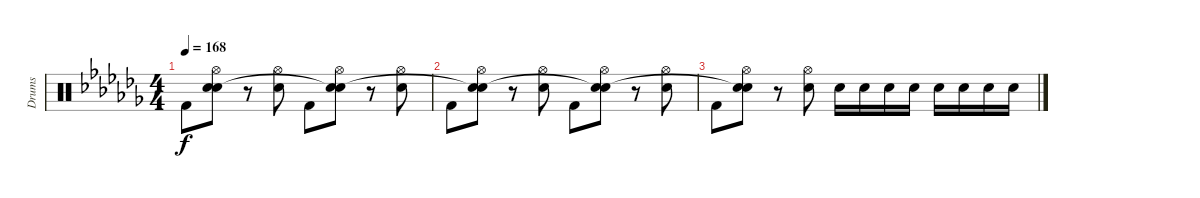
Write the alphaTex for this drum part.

\track ("Drums" "Drums") {instrument percussion}
\staff {score}
\articulation defaults
\ts (4 4)
\tempo 168
\clef neutral
\ks abminor "Kick (hit) 2".8{dy f}
("Hi-Hat (open)" "Electric Snare (hit)" "Snare (hit)"{t}).8 r.8 ("Hi-Hat (open)" "Electric Snare (hit)").8 "Kick (hit) 2".8 ("Hi-Hat (open)" "Electric Snare (hit)" "Snare (hit)"{t}).8 r.8 ("Hi-Hat (open)" "Electric Snare (hit)").8 |
"Kick (hit) 2".8 ("Hi-Hat (open)" "Electric Snare (hit)" "Snare (hit)"{t}).8 r.8 ("Hi-Hat (open)" "Electric Snare (hit)").8 "Kick (hit) 2".8 ("Hi-Hat (open)" "Electric Snare (hit)" "Snare (hit)"{t}).8 r.8 ("Hi-Hat (open)" "Electric Snare (hit)").8 |
"Kick (hit) 2".8 ("Hi-Hat (open)" "Electric Snare (hit)" "Snare (hit)"{t}).8 r.8 ("Hi-Hat (open)" "Electric Snare (hit)").8 "Electric Snare (hit)".16 "Electric Snare (hit)".16 "Electric Snare (hit)".16 "Electric Snare (hit)".16 "Electric Snare (hit)".16 "Electric Snare (hit)".16 "Electric Snare (hit)".16 "Electric Snare (hit)".16
